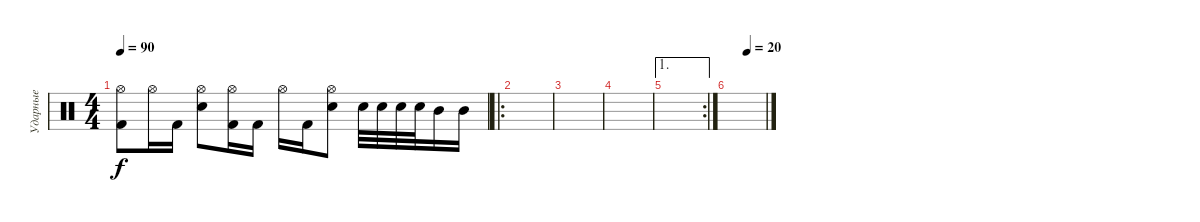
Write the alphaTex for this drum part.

\track ("Ударные" "Ударные") {instrument percussion}
\staff {score}
\articulation defaults
\ts (4 4)
\tempo 90
\clef neutral
\ks c
("Kick (hit) 2" "Hi-Hat (open)").8{dy f} "Hi-Hat (open)".16 "Kick (hit) 2".16 ("Electric Snare (hit)" "Hi-Hat (open)").8 ("Hi-Hat (open)" "Kick (hit) 2").16 "Kick (hit) 2".16 "Hi-Hat (open)".16 "Kick (hit) 2".16 ("Hi-Hat (open)" "Electric Snare (hit)").8 "Electric Snare (hit)".32 "Electric Snare (hit)".32 "Electric Snare (hit)".32 "Electric Snare (hit)".32 "Mid Tom (hit)".16 "Mid Tom (hit)".16 |
\ro
|
|
|
\ae 1
\rc 2
|
\tempo (20 0.5)
